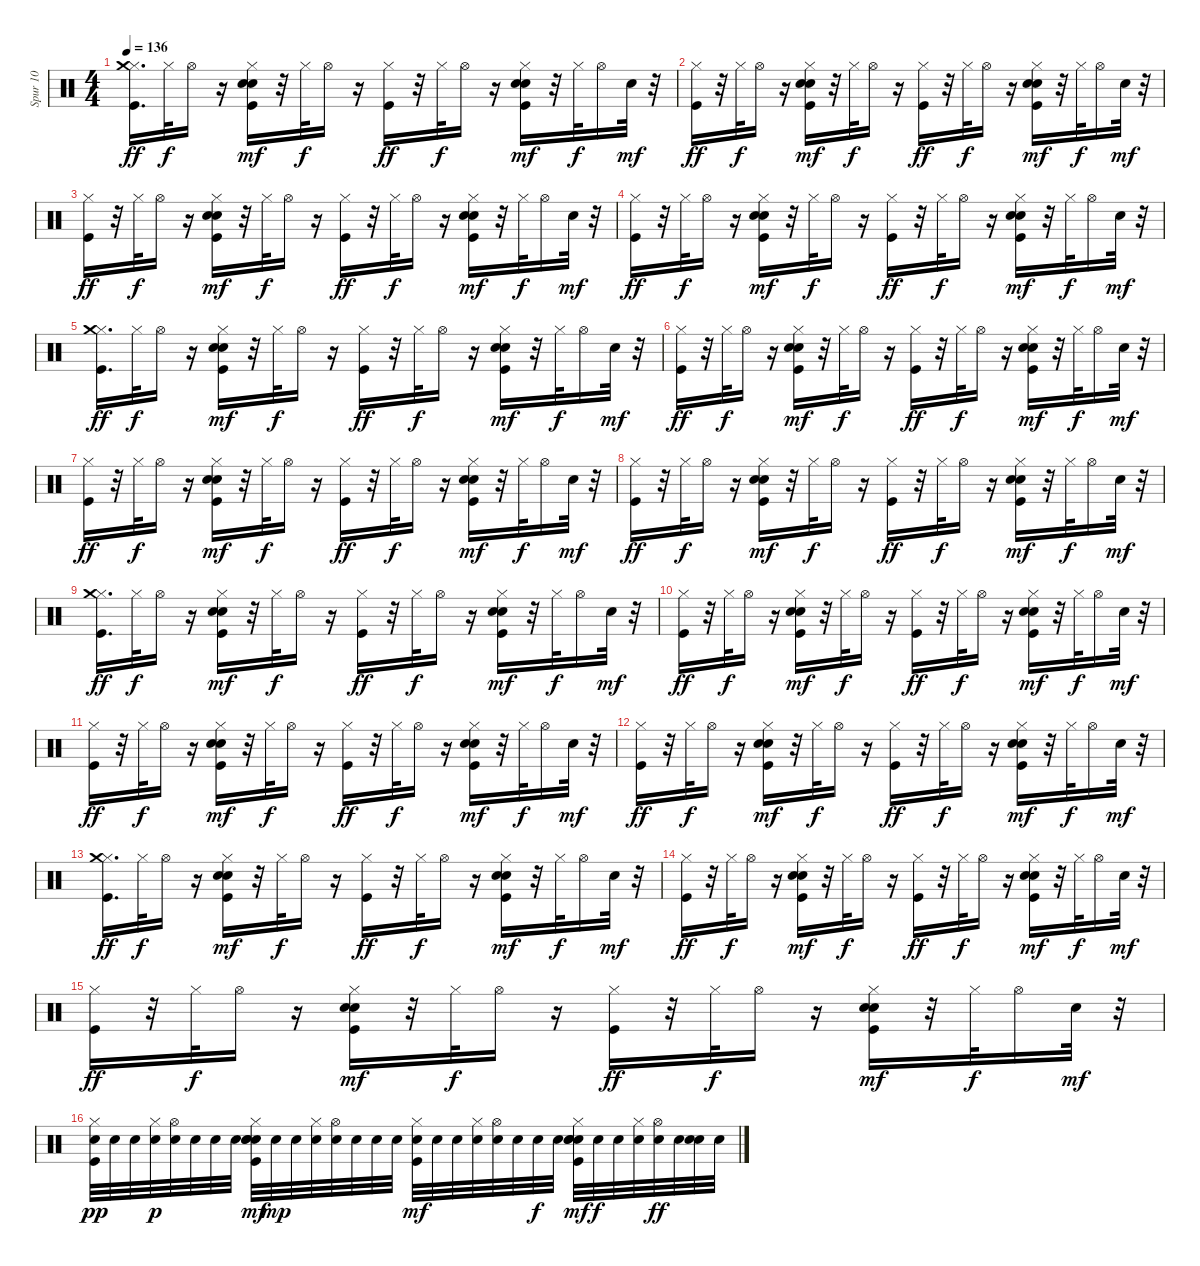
\track ("Spur 10" "Spur 10") {instrument percussion}
\staff {score}
\articulation defaults
\ts (4 4)
\tempo 136
\clef neutral
\ks c
("Kick (hit)" "Hi-Hat (closed)" "Crash medium (hit)").16{d dy ff} "Hi-Hat (closed)".32{dy f} "Hi-Hat (open)".16 r.16 ("Kick (hit)" "Snare (hit) 2" "Hi-Hat (closed)" "Hand Clap (hit)").16{dy mf} r.32 "Hi-Hat (closed)".32{dy f} "Hi-Hat (open)".16 r.16 ("Kick (hit)" "Hi-Hat (closed)").16{dy ff} r.32 "Hi-Hat (closed)".32{dy f} "Hi-Hat (open)".16 r.16 ("Kick (hit)" "Snare (hit) 2" "Hi-Hat (closed)" "Hand Clap (hit)").16{dy mf} r.32 "Hi-Hat (closed)".32{dy f} "Hi-Hat (open)".16 "Snare (hit) 2".32{dy mf} r.32 |
("Kick (hit)" "Hi-Hat (closed)").16{dy ff} r.32 "Hi-Hat (closed)".32{dy f} "Hi-Hat (open)".16 r.16 ("Kick (hit)" "Snare (hit) 2" "Hi-Hat (closed)" "Hand Clap (hit)").16{dy mf} r.32 "Hi-Hat (closed)".32{dy f} "Hi-Hat (open)".16 r.16 ("Kick (hit)" "Hi-Hat (closed)").16{dy ff} r.32 "Hi-Hat (closed)".32{dy f} "Hi-Hat (open)".16 r.16 ("Kick (hit)" "Snare (hit) 2" "Hi-Hat (closed)" "Hand Clap (hit)").16{dy mf} r.32 "Hi-Hat (closed)".32{dy f} "Hi-Hat (open)".16 "Snare (hit) 2".32{dy mf} r.32 |
("Kick (hit)" "Hi-Hat (closed)").16{dy ff} r.32 "Hi-Hat (closed)".32{dy f} "Hi-Hat (open)".16 r.16 ("Kick (hit)" "Snare (hit) 2" "Hi-Hat (closed)" "Hand Clap (hit)").16{dy mf} r.32 "Hi-Hat (closed)".32{dy f} "Hi-Hat (open)".16 r.16 ("Kick (hit)" "Hi-Hat (closed)").16{dy ff} r.32 "Hi-Hat (closed)".32{dy f} "Hi-Hat (open)".16 r.16 ("Kick (hit)" "Snare (hit) 2" "Hi-Hat (closed)" "Hand Clap (hit)").16{dy mf} r.32 "Hi-Hat (closed)".32{dy f} "Hi-Hat (open)".16 "Snare (hit) 2".32{dy mf} r.32 |
("Kick (hit)" "Hi-Hat (closed)").16{dy ff} r.32 "Hi-Hat (closed)".32{dy f} "Hi-Hat (open)".16 r.16 ("Kick (hit)" "Snare (hit) 2" "Hi-Hat (closed)" "Hand Clap (hit)").16{dy mf} r.32 "Hi-Hat (closed)".32{dy f} "Hi-Hat (open)".16 r.16 ("Kick (hit)" "Hi-Hat (closed)").16{dy ff} r.32 "Hi-Hat (closed)".32{dy f} "Hi-Hat (open)".16 r.16 ("Kick (hit)" "Snare (hit) 2" "Hi-Hat (closed)" "Hand Clap (hit)").16{dy mf} r.32 "Hi-Hat (closed)".32{dy f} "Hi-Hat (open)".16 "Snare (hit) 2".32{dy mf} r.32 |
("Kick (hit)" "Hi-Hat (closed)" "Crash medium (hit)").16{d dy ff} "Hi-Hat (closed)".32{dy f} "Hi-Hat (open)".16 r.16 ("Kick (hit)" "Snare (hit) 2" "Hi-Hat (closed)" "Hand Clap (hit)").16{dy mf} r.32 "Hi-Hat (closed)".32{dy f} "Hi-Hat (open)".16 r.16 ("Kick (hit)" "Hi-Hat (closed)").16{dy ff} r.32 "Hi-Hat (closed)".32{dy f} "Hi-Hat (open)".16 r.16 ("Kick (hit)" "Snare (hit) 2" "Hi-Hat (closed)" "Hand Clap (hit)").16{dy mf} r.32 "Hi-Hat (closed)".32{dy f} "Hi-Hat (open)".16 "Snare (hit) 2".32{dy mf} r.32 |
("Kick (hit)" "Hi-Hat (closed)").16{dy ff} r.32 "Hi-Hat (closed)".32{dy f} "Hi-Hat (open)".16 r.16 ("Kick (hit)" "Snare (hit) 2" "Hi-Hat (closed)" "Hand Clap (hit)").16{dy mf} r.32 "Hi-Hat (closed)".32{dy f} "Hi-Hat (open)".16 r.16 ("Kick (hit)" "Hi-Hat (closed)").16{dy ff} r.32 "Hi-Hat (closed)".32{dy f} "Hi-Hat (open)".16 r.16 ("Kick (hit)" "Snare (hit) 2" "Hi-Hat (closed)" "Hand Clap (hit)").16{dy mf} r.32 "Hi-Hat (closed)".32{dy f} "Hi-Hat (open)".16 "Snare (hit) 2".32{dy mf} r.32 |
("Kick (hit)" "Hi-Hat (closed)").16{dy ff} r.32 "Hi-Hat (closed)".32{dy f} "Hi-Hat (open)".16 r.16 ("Kick (hit)" "Snare (hit) 2" "Hi-Hat (closed)" "Hand Clap (hit)").16{dy mf} r.32 "Hi-Hat (closed)".32{dy f} "Hi-Hat (open)".16 r.16 ("Kick (hit)" "Hi-Hat (closed)").16{dy ff} r.32 "Hi-Hat (closed)".32{dy f} "Hi-Hat (open)".16 r.16 ("Kick (hit)" "Snare (hit) 2" "Hi-Hat (closed)" "Hand Clap (hit)").16{dy mf} r.32 "Hi-Hat (closed)".32{dy f} "Hi-Hat (open)".16 "Snare (hit) 2".32{dy mf} r.32 |
("Kick (hit)" "Hi-Hat (closed)").16{dy ff} r.32 "Hi-Hat (closed)".32{dy f} "Hi-Hat (open)".16 r.16 ("Kick (hit)" "Snare (hit) 2" "Hi-Hat (closed)" "Hand Clap (hit)").16{dy mf} r.32 "Hi-Hat (closed)".32{dy f} "Hi-Hat (open)".16 r.16 ("Kick (hit)" "Hi-Hat (closed)").16{dy ff} r.32 "Hi-Hat (closed)".32{dy f} "Hi-Hat (open)".16 r.16 ("Kick (hit)" "Snare (hit) 2" "Hi-Hat (closed)" "Hand Clap (hit)").16{dy mf} r.32 "Hi-Hat (closed)".32{dy f} "Hi-Hat (open)".16 "Snare (hit) 2".32{dy mf} r.32 |
("Kick (hit)" "Hi-Hat (closed)" "Crash medium (hit)").16{d dy ff} "Hi-Hat (closed)".32{dy f} "Hi-Hat (open)".16 r.16 ("Kick (hit)" "Snare (hit) 2" "Hi-Hat (closed)" "Hand Clap (hit)").16{dy mf} r.32 "Hi-Hat (closed)".32{dy f} "Hi-Hat (open)".16 r.16 ("Kick (hit)" "Hi-Hat (closed)").16{dy ff} r.32 "Hi-Hat (closed)".32{dy f} "Hi-Hat (open)".16 r.16 ("Kick (hit)" "Snare (hit) 2" "Hi-Hat (closed)" "Hand Clap (hit)").16{dy mf} r.32 "Hi-Hat (closed)".32{dy f} "Hi-Hat (open)".16 "Snare (hit) 2".32{dy mf} r.32 |
("Kick (hit)" "Hi-Hat (closed)").16{dy ff} r.32 "Hi-Hat (closed)".32{dy f} "Hi-Hat (open)".16 r.16 ("Kick (hit)" "Snare (hit) 2" "Hi-Hat (closed)" "Hand Clap (hit)").16{dy mf} r.32 "Hi-Hat (closed)".32{dy f} "Hi-Hat (open)".16 r.16 ("Kick (hit)" "Hi-Hat (closed)").16{dy ff} r.32 "Hi-Hat (closed)".32{dy f} "Hi-Hat (open)".16 r.16 ("Kick (hit)" "Snare (hit) 2" "Hi-Hat (closed)" "Hand Clap (hit)").16{dy mf} r.32 "Hi-Hat (closed)".32{dy f} "Hi-Hat (open)".16 "Snare (hit) 2".32{dy mf} r.32 |
("Kick (hit)" "Hi-Hat (closed)").16{dy ff} r.32 "Hi-Hat (closed)".32{dy f} "Hi-Hat (open)".16 r.16 ("Kick (hit)" "Snare (hit) 2" "Hi-Hat (closed)" "Hand Clap (hit)").16{dy mf} r.32 "Hi-Hat (closed)".32{dy f} "Hi-Hat (open)".16 r.16 ("Kick (hit)" "Hi-Hat (closed)").16{dy ff} r.32 "Hi-Hat (closed)".32{dy f} "Hi-Hat (open)".16 r.16 ("Kick (hit)" "Snare (hit) 2" "Hi-Hat (closed)" "Hand Clap (hit)").16{dy mf} r.32 "Hi-Hat (closed)".32{dy f} "Hi-Hat (open)".16 "Snare (hit) 2".32{dy mf} r.32 |
("Kick (hit)" "Hi-Hat (closed)").16{dy ff} r.32 "Hi-Hat (closed)".32{dy f} "Hi-Hat (open)".16 r.16 ("Kick (hit)" "Snare (hit) 2" "Hi-Hat (closed)" "Hand Clap (hit)").16{dy mf} r.32 "Hi-Hat (closed)".32{dy f} "Hi-Hat (open)".16 r.16 ("Kick (hit)" "Hi-Hat (closed)").16{dy ff} r.32 "Hi-Hat (closed)".32{dy f} "Hi-Hat (open)".16 r.16 ("Kick (hit)" "Snare (hit) 2" "Hi-Hat (closed)" "Hand Clap (hit)").16{dy mf} r.32 "Hi-Hat (closed)".32{dy f} "Hi-Hat (open)".16 "Snare (hit) 2".32{dy mf} r.32 |
("Kick (hit)" "Hi-Hat (closed)" "Crash medium (hit)").16{d dy ff} "Hi-Hat (closed)".32{dy f} "Hi-Hat (open)".16 r.16 ("Kick (hit)" "Snare (hit) 2" "Hi-Hat (closed)" "Hand Clap (hit)").16{dy mf} r.32 "Hi-Hat (closed)".32{dy f} "Hi-Hat (open)".16 r.16 ("Kick (hit)" "Hi-Hat (closed)").16{dy ff} r.32 "Hi-Hat (closed)".32{dy f} "Hi-Hat (open)".16 r.16 ("Kick (hit)" "Snare (hit) 2" "Hi-Hat (closed)" "Hand Clap (hit)").16{dy mf} r.32 "Hi-Hat (closed)".32{dy f} "Hi-Hat (open)".16 "Snare (hit) 2".32{dy mf} r.32 |
("Kick (hit)" "Hi-Hat (closed)").16{dy ff} r.32 "Hi-Hat (closed)".32{dy f} "Hi-Hat (open)".16 r.16 ("Kick (hit)" "Snare (hit) 2" "Hi-Hat (closed)" "Hand Clap (hit)").16{dy mf} r.32 "Hi-Hat (closed)".32{dy f} "Hi-Hat (open)".16 r.16 ("Kick (hit)" "Hi-Hat (closed)").16{dy ff} r.32 "Hi-Hat (closed)".32{dy f} "Hi-Hat (open)".16 r.16 ("Kick (hit)" "Snare (hit) 2" "Hi-Hat (closed)" "Hand Clap (hit)").16{dy mf} r.32 "Hi-Hat (closed)".32{dy f} "Hi-Hat (open)".16 "Snare (hit) 2".32{dy mf} r.32 |
("Kick (hit)" "Hi-Hat (closed)").16{dy ff} r.32 "Hi-Hat (closed)".32{dy f} "Hi-Hat (open)".16 r.16 ("Kick (hit)" "Snare (hit) 2" "Hi-Hat (closed)" "Hand Clap (hit)").16{dy mf} r.32 "Hi-Hat (closed)".32{dy f} "Hi-Hat (open)".16 r.16 ("Kick (hit)" "Hi-Hat (closed)").16{dy ff} r.32 "Hi-Hat (closed)".32{dy f} "Hi-Hat (open)".16 r.16 ("Kick (hit)" "Snare (hit) 2" "Hi-Hat (closed)" "Hand Clap (hit)").16{dy mf} r.32 "Hi-Hat (closed)".32{dy f} "Hi-Hat (open)".16 "Snare (hit) 2".32{dy mf} r.32 |
("Kick (hit)" "Hi-Hat (closed)" "Snare (hit) 2").32{dy pp} "Snare (hit) 2".32 "Snare (hit) 2".32 ("Hi-Hat (closed)" "Snare (hit) 2").32{dy p} ("Hi-Hat (open)" "Snare (hit) 2").32 "Snare (hit) 2".32 "Snare (hit) 2".32 "Snare (hit) 2".32 ("Kick (hit)" "Snare (hit) 2" "Hi-Hat (closed)" "Snare (hit) 2" "Hand Clap (hit)").32{dy mf} "Snare (hit) 2".32{dy mp} "Snare (hit) 2".32 ("Hi-Hat (closed)" "Snare (hit) 2").32 ("Hi-Hat (open)" "Snare (hit) 2").32 "Snare (hit) 2".32 "Snare (hit) 2".32 "Snare (hit) 2".32 ("Kick (hit)" "Hi-Hat (closed)" "Snare (hit) 2").32{dy mf} "Snare (hit) 2".32 "Snare (hit) 2".32 ("Hi-Hat (closed)" "Snare (hit) 2").32 ("Hi-Hat (open)" "Snare (hit) 2").32 "Snare (hit) 2".32 "Snare (hit) 2".32{dy f} "Snare (hit) 2".32 ("Kick (hit)" "Snare (hit) 2" "Hi-Hat (closed)" "Snare (hit) 2" "Hand Clap (hit)").32{dy mf} "Snare (hit) 2".32{dy f} "Snare (hit) 2".32 ("Hi-Hat (closed)" "Snare (hit) 2").32 ("Hi-Hat (open)" "Snare (hit) 2").32{dy ff} "Snare (hit) 2".32 ("Snare (hit) 2" "Snare (hit) 2").32 "Snare (hit) 2".32
